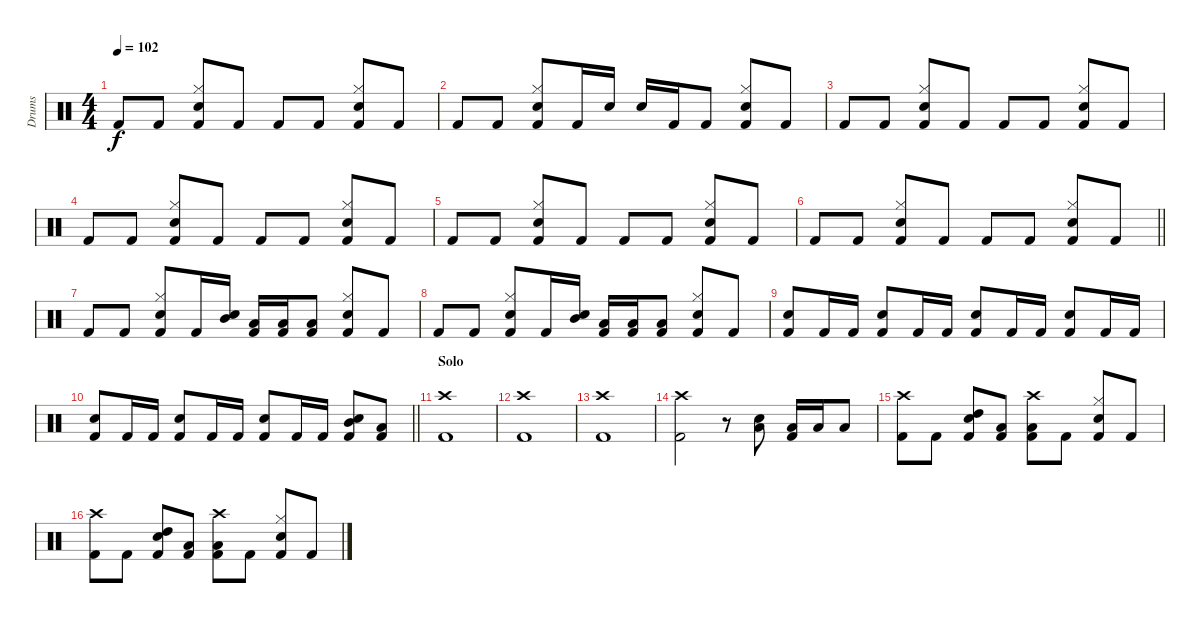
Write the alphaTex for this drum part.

\track ("Drums" "Drums") {instrument percussion}
\staff {score}
\articulation defaults
\ts (4 4)
\tempo 102
\clef neutral
\ks c "Kick (hit) 2".8{dy f} "Kick (hit) 2".8
("Hi-Hat (closed)" "Snare (hit) 2" "Kick (hit) 2").8 "Kick (hit) 2".8 "Kick (hit) 2".8 "Kick (hit) 2".8 ("Hi-Hat (closed)" "Snare (hit) 2" "Kick (hit) 2").8 "Kick (hit) 2".8 |
"Kick (hit) 2".8 "Kick (hit) 2".8 ("Hi-Hat (closed)" "Snare (hit) 2" "Kick (hit) 2").8 "Kick (hit) 2".16 "Snare (hit) 2".16 "Snare (hit) 2".16 "Kick (hit) 2".16 "Kick (hit) 2".8 ("Hi-Hat (closed)" "Snare (hit) 2" "Kick (hit) 2").8 "Kick (hit) 2".8 |
"Kick (hit) 2".8 "Kick (hit) 2".8 ("Hi-Hat (closed)" "Snare (hit) 2" "Kick (hit) 2").8 "Kick (hit) 2".8 "Kick (hit) 2".8 "Kick (hit) 2".8 ("Hi-Hat (closed)" "Snare (hit) 2" "Kick (hit) 2").8 "Kick (hit) 2".8 |
"Kick (hit) 2".8 "Kick (hit) 2".8 ("Hi-Hat (closed)" "Snare (hit) 2" "Kick (hit) 2").8 "Kick (hit) 2".8 "Kick (hit) 2".8 "Kick (hit) 2".8 ("Hi-Hat (closed)" "Snare (hit) 2" "Kick (hit) 2").8 "Kick (hit) 2".8 |
"Kick (hit) 2".8 "Kick (hit) 2".8 ("Hi-Hat (closed)" "Snare (hit) 2" "Kick (hit) 2").8 "Kick (hit) 2".8 "Kick (hit) 2".8 "Kick (hit) 2".8 ("Hi-Hat (closed)" "Snare (hit) 2" "Kick (hit) 2").8 "Kick (hit) 2".8 |
\barLineRight lightlight "Kick (hit) 2".8 "Kick (hit) 2".8
("Hi-Hat (closed)" "Snare (hit) 2" "Kick (hit) 2").8 "Kick (hit) 2".8 "Kick (hit) 2".8 "Kick (hit) 2".8 ("Hi-Hat (closed)" "Snare (hit) 2" "Kick (hit) 2").8 "Kick (hit) 2".8 |
"Kick (hit) 2".8 "Kick (hit) 2".8 ("Hi-Hat (closed)" "Snare (hit) 2" "Kick (hit) 2").8 "Kick (hit) 2".16 ("Mid Tom (hit)" "Snare (hit) 2").16 ("Low Tom (hit)" "Kick (hit) 2").16 ("Low Tom (hit)" "Kick (hit) 2").16 ("Low Tom (hit)" "Kick (hit) 2").8 ("Hi-Hat (closed)" "Snare (hit) 2" "Kick (hit) 2").8 "Kick (hit) 2".8 |
"Kick (hit) 2".8 "Kick (hit) 2".8 ("Hi-Hat (closed)" "Snare (hit) 2" "Kick (hit) 2").8 "Kick (hit) 2".16 ("Mid Tom (hit)" "Snare (hit) 2").16 ("Low Tom (hit)" "Kick (hit) 2").16 ("Low Tom (hit)" "Kick (hit) 2").16 ("Low Tom (hit)" "Kick (hit) 2").8 ("Hi-Hat (closed)" "Snare (hit) 2" "Kick (hit) 2").8 "Kick (hit) 2".8 |
("Snare (hit) 2" "Kick (hit) 2").8 "Kick (hit) 2".16 "Kick (hit) 2".16 ("Snare (hit) 2" "Kick (hit) 2").8 "Kick (hit) 2".16 "Kick (hit) 2".16 ("Snare (hit) 2" "Kick (hit) 2").8 "Kick (hit) 2".16 "Kick (hit) 2".16 ("Snare (hit) 2" "Kick (hit) 2").8 "Kick (hit) 2".16 "Kick (hit) 2".16 |
\barLineRight lightlight
("Snare (hit) 2" "Kick (hit) 2").8 "Kick (hit) 2".16 "Kick (hit) 2".16 ("Snare (hit) 2" "Kick (hit) 2").8 "Kick (hit) 2".16 "Kick (hit) 2".16 ("Snare (hit) 2" "Kick (hit) 2").8 "Kick (hit) 2".16 "Kick (hit) 2".16 ("Mid Tom (hit)" "Snare (hit) 2" "Kick (hit) 2").8 ("Low Tom (hit)" "Kick (hit) 2").8 |
\section ("" "Solo")
("Crash high (hit)" "Kick (hit) 2").1 |
("Crash high (hit)" "Kick (hit) 2").1 |
("Crash high (hit)" "Kick (hit) 2").1 |
("Crash high (hit)" "Kick (hit) 2").2 r.8 ("Low Tom (hit)" "Snare (hit) 2").8 ("Low Tom (hit)" "Kick (hit) 2").16 "Low Tom (hit)".16 "Low Tom (hit)".8 |
("Crash high (hit)" "Kick (hit) 2").8 "Kick (hit) 2".8 ("High Tom (hit)" "Snare (hit) 2" "Kick (hit) 2").8 ("Low Tom (hit)" "Kick (hit) 2").8 ("Crash high (hit)" "Low Tom (hit)" "Kick (hit) 2").8 "Kick (hit) 2".8 ("Hi-Hat (closed)" "Snare (hit) 2" "Kick (hit) 2").8 "Kick (hit) 2".8 |
("Crash high (hit)" "Kick (hit) 2").8 "Kick (hit) 2".8 ("High Tom (hit)" "Snare (hit) 2" "Kick (hit) 2").8 ("Low Tom (hit)" "Kick (hit) 2").8 ("Crash high (hit)" "Low Tom (hit)" "Kick (hit) 2").8 "Kick (hit) 2".8 ("Hi-Hat (closed)" "Snare (hit) 2" "Kick (hit) 2").8 "Kick (hit) 2".8
